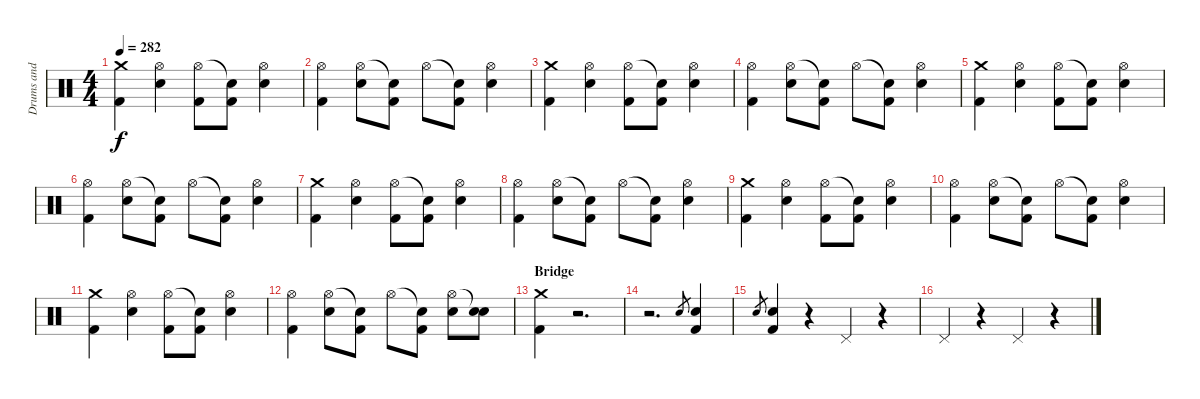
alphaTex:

\track ("Drums and Percussion" "Drums and ") {instrument percussion}
\staff {score}
\articulation defaults
\ts (4 4)
\tempo 282
\clef neutral
\ks c
("Crash medium (hit)" "Kick (hit) 2").4{dy f} ("Hi-Hat (open)" "Snare (hit) 2").4 ("Hi-Hat (open)" "Kick (hit) 2").8 ("Snare (hit)"{t} "Kick (hit) 2").8 ("Hi-Hat (open)" "Snare (hit) 2").4 |
("Hi-Hat (open)" "Kick (hit) 2").4 ("Hi-Hat (open)" "Snare (hit) 2").8 ("Snare (hit)"{t} "Kick (hit) 2").8 "Hi-Hat (open)".8 ("Snare (hit)"{t} "Kick (hit) 2").8 ("Hi-Hat (open)" "Snare (hit) 2").4 |
("Crash medium (hit)" "Kick (hit) 2").4 ("Hi-Hat (open)" "Snare (hit) 2").4 ("Hi-Hat (open)" "Kick (hit) 2").8 ("Snare (hit)"{t} "Kick (hit) 2").8 ("Hi-Hat (open)" "Snare (hit) 2").4 |
("Hi-Hat (open)" "Kick (hit) 2").4 ("Hi-Hat (open)" "Snare (hit) 2").8 ("Snare (hit)"{t} "Kick (hit) 2").8 "Hi-Hat (open)".8 ("Snare (hit)"{t} "Kick (hit) 2").8 ("Hi-Hat (open)" "Snare (hit) 2").4 |
("Crash medium (hit)" "Kick (hit) 2").4 ("Hi-Hat (open)" "Snare (hit) 2").4 ("Hi-Hat (open)" "Kick (hit) 2").8 ("Snare (hit)"{t} "Kick (hit) 2").8 ("Hi-Hat (open)" "Snare (hit) 2").4 |
("Hi-Hat (open)" "Kick (hit) 2").4 ("Hi-Hat (open)" "Snare (hit) 2").8 ("Snare (hit)"{t} "Kick (hit) 2").8 "Hi-Hat (open)".8 ("Snare (hit)"{t} "Kick (hit) 2").8 ("Hi-Hat (open)" "Snare (hit) 2").4 |
("Crash medium (hit)" "Kick (hit) 2").4 ("Hi-Hat (open)" "Snare (hit) 2").4 ("Hi-Hat (open)" "Kick (hit) 2").8 ("Snare (hit)"{t} "Kick (hit) 2").8 ("Hi-Hat (open)" "Snare (hit) 2").4 |
("Hi-Hat (open)" "Kick (hit) 2").4 ("Hi-Hat (open)" "Snare (hit) 2").8 ("Snare (hit)"{t} "Kick (hit) 2").8 "Hi-Hat (open)".8 ("Snare (hit)"{t} "Kick (hit) 2").8 ("Hi-Hat (open)" "Snare (hit) 2").4 |
("Crash medium (hit)" "Kick (hit) 2").4 ("Hi-Hat (open)" "Snare (hit) 2").4 ("Hi-Hat (open)" "Kick (hit) 2").8 ("Snare (hit)"{t} "Kick (hit) 2").8 ("Hi-Hat (open)" "Snare (hit) 2").4 |
("Hi-Hat (open)" "Kick (hit) 2").4 ("Hi-Hat (open)" "Snare (hit) 2").8 ("Snare (hit)"{t} "Kick (hit) 2").8 "Hi-Hat (open)".8 ("Snare (hit)"{t} "Kick (hit) 2").8 ("Hi-Hat (open)" "Snare (hit) 2").4 |
("Crash medium (hit)" "Kick (hit) 2").4 ("Hi-Hat (open)" "Snare (hit) 2").4 ("Hi-Hat (open)" "Kick (hit) 2").8 ("Snare (hit)"{t} "Kick (hit) 2").8 ("Hi-Hat (open)" "Snare (hit) 2").4 |
("Hi-Hat (open)" "Kick (hit) 2").4 ("Hi-Hat (open)" "Snare (hit) 2").8 ("Snare (hit)"{t} "Kick (hit) 2").8 "Hi-Hat (open)".8 ("Snare (hit)"{t} "Kick (hit) 2").8 ("Hi-Hat (open)" "Snare (hit) 2").8 ("Snare (hit)"{t} "Snare (hit) 2").8 |
\section ("" "Bridge")
("Crash medium (hit)" "Kick (hit) 2").4 r.2{d} |
r.2{d} "Snare (hit) 2".8{gr} ("Snare (hit) 2" "Kick (hit) 2").4 |
"Snare (hit) 2".8{gr} ("Snare (hit) 2" "Kick (hit) 2").4 r.4 "Pedal Hi-Hat (hit)".4 r.4 |
"Pedal Hi-Hat (hit)".4 r.4 "Pedal Hi-Hat (hit)".4 r.4
